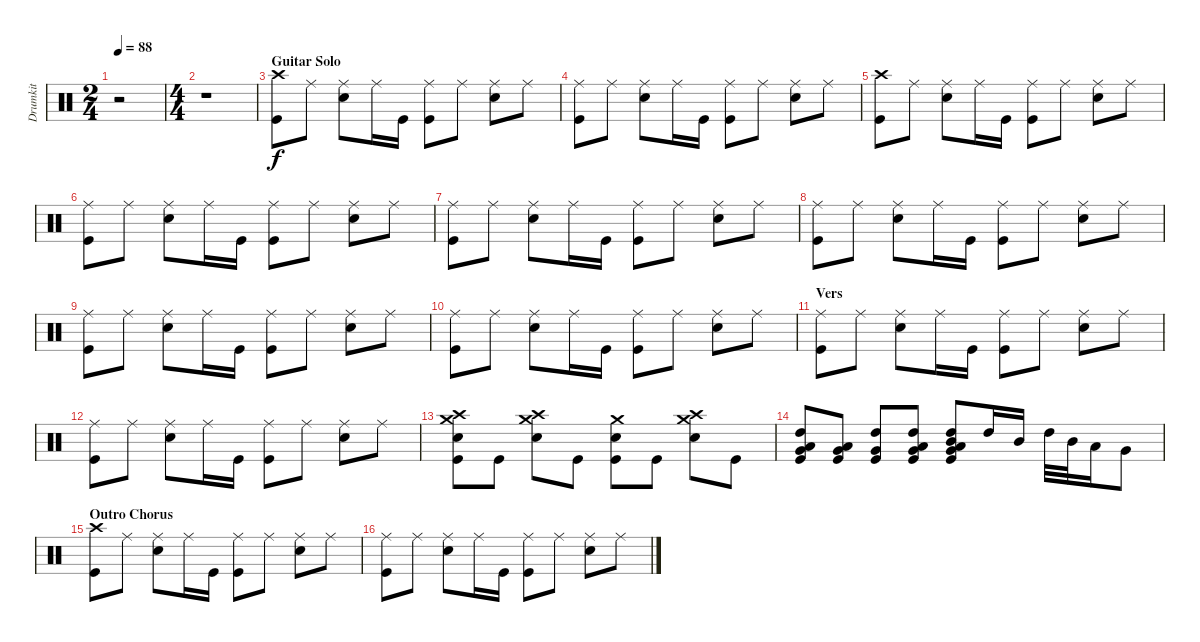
\track ("Drumkit" "Drumkit") {instrument percussion}
\staff {score}
\articulation defaults
\ts (2 4)
\tempo 88
\clef neutral
\ks c
r.2{dy f} |
\ts (4 4)
r.1 |
\section ("" "Guitar Solo")
("Crash high (hit)" "Kick (hit)").8 "Ride (middle)".8 ("Ride (middle)" "Snare (hit) 2").8 "Ride (middle)".16 "Kick (hit)".16 ("Ride (middle)" "Kick (hit)").8 "Ride (middle)".8 ("Ride (middle)" "Snare (hit) 2").8 "Ride (middle)".8 |
("Ride (middle)" "Kick (hit)").8 "Ride (middle)".8 ("Ride (middle)" "Snare (hit) 2").8 "Ride (middle)".16 "Kick (hit)".16 ("Ride (middle)" "Kick (hit)").8 "Ride (middle)".8 ("Ride (middle)" "Snare (hit) 2").8 "Ride (middle)".8 |
("Crash high (hit)" "Kick (hit)").8 "Ride (middle)".8 ("Ride (middle)" "Snare (hit) 2").8 "Ride (middle)".16 "Kick (hit)".16 ("Ride (middle)" "Kick (hit)").8 "Ride (middle)".8 ("Ride (middle)" "Snare (hit) 2").8 "Ride (middle)".8 |
("Ride (middle)" "Kick (hit)").8 "Ride (middle)".8 ("Ride (middle)" "Snare (hit) 2").8 "Ride (middle)".16 "Kick (hit)".16 ("Ride (middle)" "Kick (hit)").8 "Ride (middle)".8 ("Ride (middle)" "Snare (hit) 2").8 "Ride (middle)".8 |
("Ride (middle)" "Kick (hit)").8 "Ride (middle)".8 ("Ride (middle)" "Snare (hit) 2").8 "Ride (middle)".16 "Kick (hit)".16 ("Ride (middle)" "Kick (hit)").8 "Ride (middle)".8 ("Ride (middle)" "Snare (hit) 2").8 "Ride (middle)".8 |
("Ride (middle)" "Kick (hit)").8 "Ride (middle)".8 ("Ride (middle)" "Snare (hit) 2").8 "Ride (middle)".16 "Kick (hit)".16 ("Ride (middle)" "Kick (hit)").8 "Ride (middle)".8 ("Ride (middle)" "Snare (hit) 2").8 "Ride (middle)".8 |
("Ride (middle)" "Kick (hit)").8 "Ride (middle)".8 ("Ride (middle)" "Snare (hit) 2").8 "Ride (middle)".16 "Kick (hit)".16 ("Ride (middle)" "Kick (hit)").8 "Ride (middle)".8 ("Ride (middle)" "Snare (hit) 2").8 "Ride (middle)".8 |
("Ride (middle)" "Kick (hit)").8 "Ride (middle)".8 ("Ride (middle)" "Snare (hit) 2").8 "Ride (middle)".16 "Kick (hit)".16 ("Ride (middle)" "Kick (hit)").8 "Ride (middle)".8 ("Ride (middle)" "Snare (hit) 2").8 "Ride (middle)".8 |
\section ("" "Vers")
("Ride (middle)" "Kick (hit)").8 "Ride (middle)".8 ("Ride (middle)" "Snare (hit) 2").8 "Ride (middle)".16 "Kick (hit)".16 ("Ride (middle)" "Kick (hit)").8 "Ride (middle)".8 ("Ride (middle)" "Snare (hit) 2").8 "Ride (middle)".8 |
("Ride (middle)" "Kick (hit)").8 "Ride (middle)".8 ("Ride (middle)" "Snare (hit) 2").8 "Ride (middle)".16 "Kick (hit)".16 ("Ride (middle)" "Kick (hit)").8 "Ride (middle)".8 ("Ride (middle)" "Snare (hit) 2").8 "Ride (middle)".8 |
("Crash medium (hit)" "Crash high (hit)" "Snare (hit) 2" "Kick (hit)").8 "Kick (hit)".8 ("Crash medium (hit)" "Crash high (hit)" "Snare (hit) 2").8 "Kick (hit)".8 ("Crash medium (hit)" "Snare (hit) 2" "Kick (hit)").8 "Kick (hit)".8 ("Crash medium (hit)" "Crash high (hit)" "Snare (hit) 2").8 "Kick (hit)".8 |
("High Tom (hit)" "Very Low Tom (hit)" "Low Tom (hit)" "Kick (hit)").8 ("Low Tom (hit)" "Very Low Tom (hit)" "Kick (hit)").8 ("High Tom (hit)" "Very Low Tom (hit)" "Kick (hit)").8 ("High Tom (hit)" "Very Low Tom (hit)" "Low Tom (hit)" "Kick (hit)").8 ("High Tom (hit)" "Mid Tom (hit)" "Low Tom (hit)" "Very Low Tom (hit)" "Kick (hit)").8 "High Tom (hit)".16 "Mid Tom (hit)".16 "High Tom (hit)".32 "Mid Tom (hit)".32 "Low Tom (hit)".16 "Very Low Tom (hit)".8 |
\section ("" "Outro Chorus")
("Crash high (hit)" "Kick (hit)").8 "Ride (middle)".8 ("Ride (middle)" "Snare (hit) 2").8 "Ride (middle)".16 "Kick (hit)".16 ("Ride (middle)" "Kick (hit)").8 "Ride (middle)".8 ("Ride (middle)" "Snare (hit) 2").8 "Ride (middle)".8 |
("Ride (middle)" "Kick (hit)").8 "Ride (middle)".8 ("Ride (middle)" "Snare (hit) 2").8 "Ride (middle)".16 "Kick (hit)".16 ("Ride (middle)" "Kick (hit)").8 "Ride (middle)".8 ("Ride (middle)" "Snare (hit) 2").8 "Ride (middle)".8
